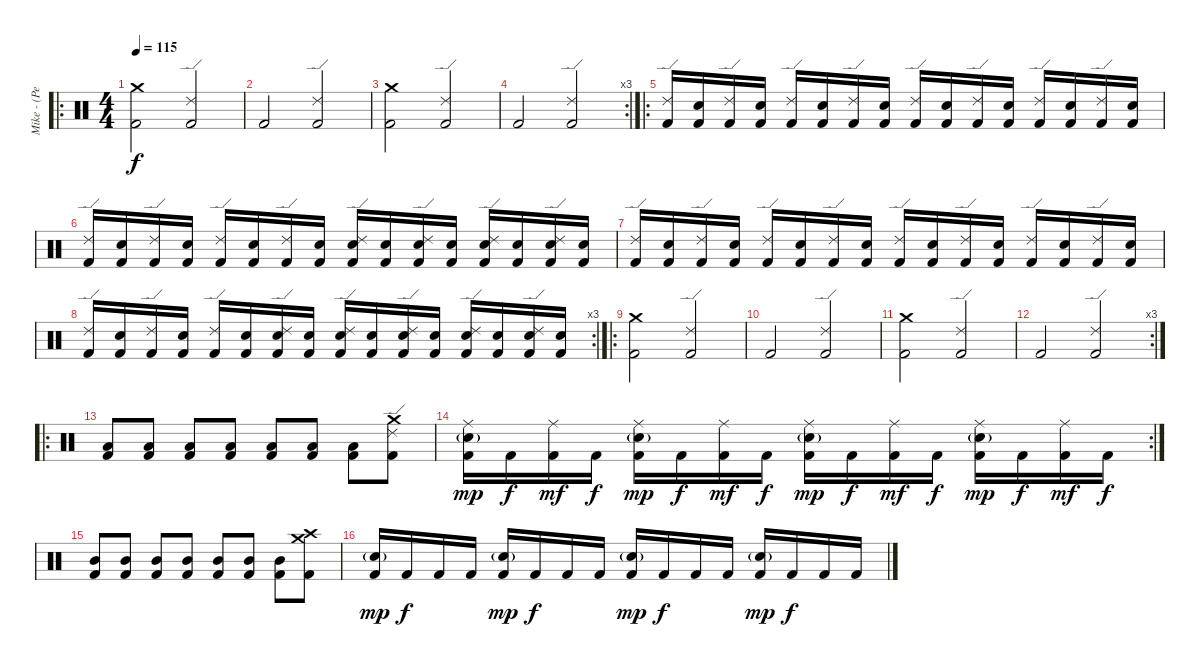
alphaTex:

\track ("Mike - (Percussion)" "Mike - (Pe") {instrument percussion}
\staff {score}
\articulation defaults
\ro
\ts (4 4)
\tempo 115
\clef neutral
\ks c
("Crash medium (hit)" "Kick (hit) 2").2{dy f} ("Ride (edge) 2" "Kick (hit) 2").2 |
"Kick (hit) 2".2 ("Ride (edge) 2" "Kick (hit) 2").2 |
("Crash medium (hit)" "Kick (hit) 2").2 ("Ride (edge) 2" "Kick (hit) 2").2 |
\rc 3 "Kick (hit) 2".2
("Ride (edge) 2" "Kick (hit) 2").2 |
\ro
("Ride (edge) 2" "Kick (hit) 2").16 ("Snare (hit) 2" "Kick (hit) 2").16 ("Ride (edge) 2" "Kick (hit) 2").16 ("Snare (hit) 2" "Kick (hit) 2").16 ("Ride (edge) 2" "Kick (hit) 2").16 ("Snare (hit) 2" "Kick (hit) 2").16 ("Ride (edge) 2" "Kick (hit) 2").16 ("Snare (hit) 2" "Kick (hit) 2").16 ("Ride (edge) 2" "Kick (hit) 2").16 ("Snare (hit) 2" "Kick (hit) 2").16 ("Ride (edge) 2" "Kick (hit) 2").16 ("Snare (hit) 2" "Kick (hit) 2").16 ("Ride (edge) 2" "Kick (hit) 2").16 ("Snare (hit) 2" "Kick (hit) 2").16 ("Ride (edge) 2" "Kick (hit) 2").16 ("Snare (hit) 2" "Kick (hit) 2").16 |
("Ride (edge) 2" "Kick (hit) 2").16 ("Snare (hit) 2" "Kick (hit) 2").16 ("Ride (edge) 2" "Kick (hit) 2").16 ("Snare (hit) 2" "Kick (hit) 2").16 ("Ride (edge) 2" "Kick (hit) 2").16 ("Snare (hit) 2" "Kick (hit) 2").16 ("Ride (edge) 2" "Kick (hit) 2").16 ("Snare (hit) 2" "Kick (hit) 2").16 ("Ride (edge) 2" "Snare (hit) 2" "Kick (hit) 2").16 ("Snare (hit) 2" "Kick (hit) 2").16 ("Ride (edge) 2" "Snare (hit) 2" "Kick (hit) 2").16 ("Snare (hit) 2" "Kick (hit) 2").16 ("Ride (edge) 2" "Snare (hit) 2" "Kick (hit) 2").16 ("Snare (hit) 2" "Kick (hit) 2").16 ("Ride (edge) 2" "Snare (hit) 2" "Kick (hit) 2").16 ("Snare (hit) 2" "Kick (hit) 2").16 |
("Ride (edge) 2" "Kick (hit) 2").16 ("Snare (hit) 2" "Kick (hit) 2").16 ("Ride (edge) 2" "Kick (hit) 2").16 ("Snare (hit) 2" "Kick (hit) 2").16 ("Ride (edge) 2" "Kick (hit) 2").16 ("Snare (hit) 2" "Kick (hit) 2").16 ("Ride (edge) 2" "Kick (hit) 2").16 ("Snare (hit) 2" "Kick (hit) 2").16 ("Ride (edge) 2" "Kick (hit) 2").16 ("Snare (hit) 2" "Kick (hit) 2").16 ("Ride (edge) 2" "Kick (hit) 2").16 ("Snare (hit) 2" "Kick (hit) 2").16 ("Ride (edge) 2" "Kick (hit) 2").16 ("Snare (hit) 2" "Kick (hit) 2").16 ("Ride (edge) 2" "Kick (hit) 2").16 ("Snare (hit) 2" "Kick (hit) 2").16 |
\rc 3
("Ride (edge) 2" "Kick (hit) 2").16 ("Snare (hit) 2" "Kick (hit) 2").16 ("Ride (edge) 2" "Kick (hit) 2").16 ("Snare (hit) 2" "Kick (hit) 2").16 ("Ride (edge) 2" "Kick (hit) 2").16 ("Snare (hit) 2" "Kick (hit) 2").16 ("Ride (edge) 2" "Snare (hit) 2" "Kick (hit) 2").16 ("Snare (hit) 2" "Kick (hit) 2").16 ("Ride (edge) 2" "Snare (hit) 2" "Kick (hit) 2").16 ("Snare (hit) 2" "Kick (hit) 2").16 ("Ride (edge) 2" "Snare (hit) 2" "Kick (hit) 2").16 ("Snare (hit) 2" "Kick (hit) 2").16 ("Ride (edge) 2" "Snare (hit) 2" "Kick (hit) 2").16 ("Snare (hit) 2" "Kick (hit) 2").16 ("Ride (edge) 2" "Snare (hit) 2" "Kick (hit) 2").16 ("Snare (hit) 2" "Kick (hit) 2").16 |
\ro
("Crash medium (hit)" "Kick (hit) 2").2 ("Ride (edge) 2" "Kick (hit) 2").2 |
"Kick (hit) 2".2 ("Ride (edge) 2" "Kick (hit) 2").2 |
("Crash medium (hit)" "Kick (hit) 2").2 ("Ride (edge) 2" "Kick (hit) 2").2 |
\rc 3 "Kick (hit) 2".2
("Ride (edge) 2" "Kick (hit) 2").2 |
\ro
("Low Tom (hit)" "Kick (hit) 2").8 ("Low Tom (hit)" "Kick (hit) 2").8 ("Low Tom (hit)" "Kick (hit) 2").8 ("Low Tom (hit)" "Kick (hit) 2").8 ("Low Tom (hit)" "Kick (hit) 2").8 ("Low Tom (hit)" "Kick (hit) 2").8 ("Low Tom (hit)" "Kick (hit) 2").8 ("Crash medium (hit)" "Ride (edge) 2" "Kick (hit) 2").8 |
\rc 2
("Ride (middle)" "Snare (hit) 2"{g} "Kick (hit) 2").16{dy mp} "Kick (hit) 2".16{dy f} ("Ride (middle)" "Kick (hit) 2").16{dy mf} "Kick (hit) 2".16{dy f} ("Ride (middle)" "Snare (hit) 2"{g} "Kick (hit) 2").16{dy mp} "Kick (hit) 2".16{dy f} ("Ride (middle)" "Kick (hit) 2").16{dy mf} "Kick (hit) 2".16{dy f} ("Ride (middle)" "Snare (hit) 2"{g} "Kick (hit) 2").16{dy mp} "Kick (hit) 2".16{dy f} ("Ride (middle)" "Kick (hit) 2").16{dy mf} "Kick (hit) 2".16{dy f} ("Ride (middle)" "Snare (hit) 2"{g} "Kick (hit) 2").16{dy mp} "Kick (hit) 2".16{dy f} ("Ride (middle)" "Kick (hit) 2").16{dy mf} "Kick (hit) 2".16{dy f} |
("Mid Tom (hit)" "Kick (hit) 2").8 ("Mid Tom (hit)" "Kick (hit) 2").8 ("Mid Tom (hit)" "Kick (hit) 2").8 ("Mid Tom (hit)" "Kick (hit) 2").8 ("Mid Tom (hit)" "Kick (hit) 2").8 ("Mid Tom (hit)" "Kick (hit) 2").8 ("Mid Tom (hit)" "Kick (hit) 2").8 ("Crash medium (hit)" "Crash high (hit)" "Kick (hit) 2").8 |
("Electric Snare (hit)"{g} "Kick (hit) 2").16{dy mp} "Kick (hit) 2".16{dy f} "Kick (hit) 2".16 "Kick (hit) 2".16 ("Electric Snare (hit)"{g} "Kick (hit) 2").16{dy mp} "Kick (hit) 2".16{dy f} "Kick (hit) 2".16 "Kick (hit) 2".16 ("Electric Snare (hit)"{g} "Kick (hit) 2").16{dy mp} "Kick (hit) 2".16{dy f} "Kick (hit) 2".16 "Kick (hit) 2".16 ("Electric Snare (hit)"{g} "Kick (hit) 2").16{dy mp} "Kick (hit) 2".16{dy f} "Kick (hit) 2".16 "Kick (hit) 2".16
